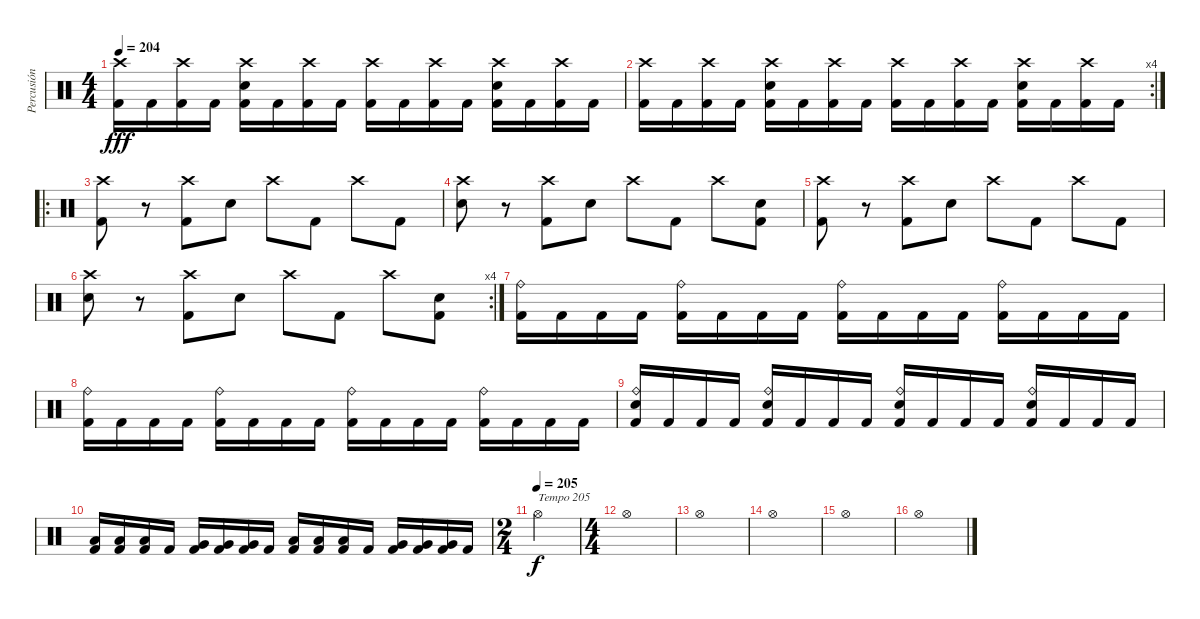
\track ("Percusión" "Percusión") {instrument percussion}
\staff {score}
\articulation defaults
\ts (4 4)
\tempo 204
\clef neutral
\ks c
("Crash high (hit)" "Kick (hit) 2").16{dy fff} "Kick (hit) 2".16 ("Crash high (hit)" "Kick (hit) 2").16 "Kick (hit) 2".16 ("Crash high (hit)" "Snare (hit) 2" "Kick (hit) 2").16 "Kick (hit) 2".16 ("Crash high (hit)" "Kick (hit) 2").16 "Kick (hit) 2".16 ("Crash high (hit)" "Kick (hit) 2").16 "Kick (hit) 2".16 ("Crash high (hit)" "Kick (hit) 2").16 "Kick (hit) 2".16 ("Crash high (hit)" "Snare (hit) 2" "Kick (hit) 2").16 "Kick (hit) 2".16 ("Crash high (hit)" "Kick (hit) 2").16 "Kick (hit) 2".16 |
\rc 4
("Crash high (hit)" "Kick (hit) 2").16 "Kick (hit) 2".16 ("Crash high (hit)" "Kick (hit) 2").16 "Kick (hit) 2".16 ("Crash high (hit)" "Snare (hit) 2" "Kick (hit) 2").16 "Kick (hit) 2".16 ("Crash high (hit)" "Kick (hit) 2").16 "Kick (hit) 2".16 ("Crash high (hit)" "Kick (hit) 2").16 "Kick (hit) 2".16 ("Crash high (hit)" "Kick (hit) 2").16 "Kick (hit) 2".16 ("Crash high (hit)" "Snare (hit) 2" "Kick (hit) 2").16 "Kick (hit) 2".16 ("Crash high (hit)" "Kick (hit) 2").16 "Kick (hit) 2".16 |
\ro
("Crash high (hit)" "Kick (hit) 2").8 r.8 ("Crash high (hit)" "Kick (hit) 2").8 "Snare (hit) 2".8 "Crash high (hit)".8 "Kick (hit) 2".8 "Crash high (hit)".8 "Kick (hit) 2".8 |
("Crash high (hit)" "Snare (hit) 2").8 r.8 ("Crash high (hit)" "Kick (hit) 2").8 "Snare (hit) 2".8 "Crash high (hit)".8 "Kick (hit) 2".8 "Crash high (hit)".8 ("Snare (hit) 2" "Kick (hit) 2").8 |
("Crash high (hit)" "Kick (hit) 2").8 r.8 ("Crash high (hit)" "Kick (hit) 2").8 "Snare (hit) 2".8 "Crash high (hit)".8 "Kick (hit) 2".8 "Crash high (hit)".8 "Kick (hit) 2".8 |
\rc 4
("Crash high (hit)" "Snare (hit) 2").8 r.8 ("Crash high (hit)" "Kick (hit) 2").8 "Snare (hit) 2".8 "Crash high (hit)".8 "Kick (hit) 2".8 "Crash high (hit)".8 ("Snare (hit) 2" "Kick (hit) 2").8 |
("Ride (bell)" "Kick (hit) 2").16 "Kick (hit) 2".16 "Kick (hit) 2".16 "Kick (hit) 2".16 ("Ride (bell)" "Kick (hit) 2").16 "Kick (hit) 2".16 "Kick (hit) 2".16 "Kick (hit) 2".16 ("Ride (bell)" "Kick (hit) 2").16 "Kick (hit) 2".16 "Kick (hit) 2".16 "Kick (hit) 2".16 ("Ride (bell)" "Kick (hit) 2").16 "Kick (hit) 2".16 "Kick (hit) 2".16 "Kick (hit) 2".16 |
("Ride (bell)" "Kick (hit) 2").16 "Kick (hit) 2".16 "Kick (hit) 2".16 "Kick (hit) 2".16 ("Ride (bell)" "Kick (hit) 2").16 "Kick (hit) 2".16 "Kick (hit) 2".16 "Kick (hit) 2".16 ("Ride (bell)" "Kick (hit) 2").16 "Kick (hit) 2".16 "Kick (hit) 2".16 "Kick (hit) 2".16 ("Ride (bell)" "Kick (hit) 2").16 "Kick (hit) 2".16 "Kick (hit) 2".16 "Kick (hit) 2".16 |
("Ride (bell)" "Electric Snare (hit)" "Kick (hit) 2").16 "Kick (hit) 2".16 "Kick (hit) 2".16 "Kick (hit) 2".16 ("Ride (bell)" "Electric Snare (hit)" "Kick (hit) 2").16 "Kick (hit) 2".16 "Kick (hit) 2".16 "Kick (hit) 2".16 ("Ride (bell)" "Electric Snare (hit)" "Kick (hit) 2").16 "Kick (hit) 2".16 "Kick (hit) 2".16 "Kick (hit) 2".16 ("Ride (bell)" "Electric Snare (hit)" "Kick (hit) 2").16 "Kick (hit) 2".16 "Kick (hit) 2".16 "Kick (hit) 2".16 |
("Low Floor Tom (hit)" "Kick (hit) 2").16 ("Low Floor Tom (hit)" "Kick (hit) 2").16 ("Low Floor Tom (hit)" "Kick (hit) 2").16 "Kick (hit) 2".16 ("Very Low Tom (hit)" "Kick (hit) 2").16 ("Very Low Tom (hit)" "Kick (hit) 2").16 ("Very Low Tom (hit)" "Kick (hit) 2").16 "Kick (hit) 2".16 ("Low Tom (hit)" "Kick (hit) 2").16 ("Low Tom (hit)" "Kick (hit) 2").16 ("Low Tom (hit)" "Kick (hit) 2").16 "Kick (hit) 2".16 ("Very Low Tom (hit)" "Kick (hit) 2").16 ("Very Low Tom (hit)" "Kick (hit) 2").16 ("Very Low Tom (hit)" "Kick (hit) 2").16 "Kick (hit) 2".16 |
\ts (2 4)
\tempo (205)
"Hi-Hat (open)".2{txt "Tempo 205" dy f} |
\ts (4 4)
"Hi-Hat (open)".1 |
"Hi-Hat (open)".1 |
"Hi-Hat (open)".1 |
"Hi-Hat (open)".1 |
"Hi-Hat (open)".1
